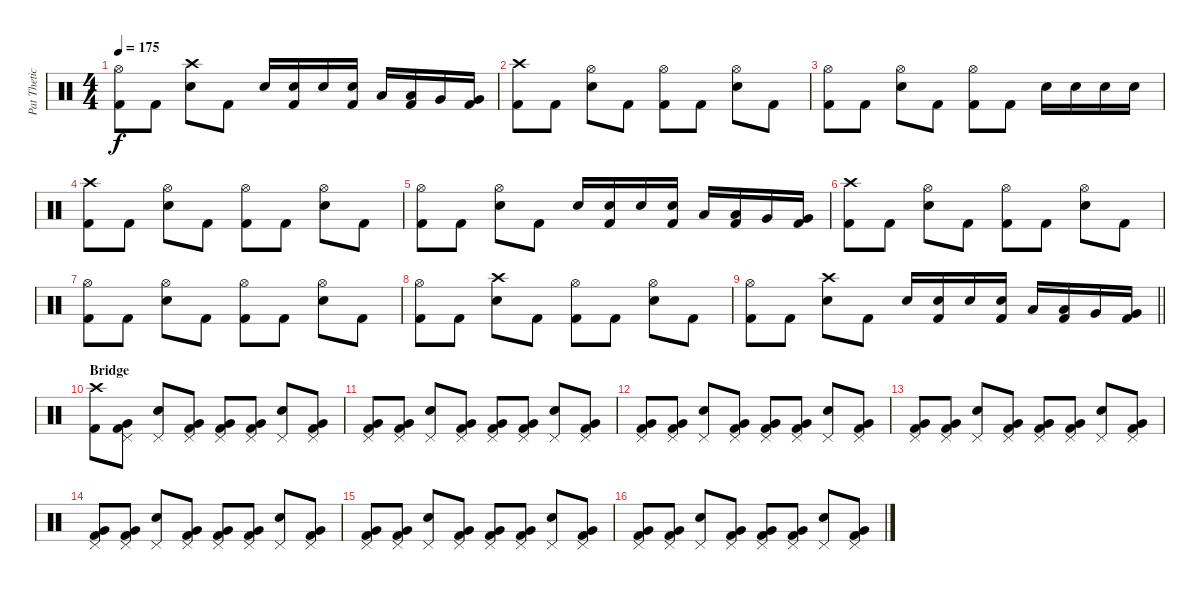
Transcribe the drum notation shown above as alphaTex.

\track ("Pat Thetic" "Pat Thetic") {instrument percussion}
\staff {score}
\articulation defaults
\ts (4 4)
\tempo 175
\clef neutral
\ks c
("Hi-Hat (open)" "Kick (hit) 2").8{dy f} "Kick (hit) 2".8 ("Crash high (hit)" "Electric Snare (hit)").8 "Kick (hit) 2".8 "Electric Snare (hit)".16 ("Electric Snare (hit)" "Kick (hit) 2").16 "Electric Snare (hit)".16 ("Electric Snare (hit)" "Kick (hit) 2").16 "Low Tom (hit)".16 ("Low Tom (hit)" "Kick (hit) 2").16 "Very Low Tom (hit)".16 ("Very Low Tom (hit)" "Kick (hit) 2").16 |
("Crash high (hit)" "Kick (hit) 2").8 "Kick (hit) 2".8 ("Hi-Hat (open)" "Electric Snare (hit)").8 "Kick (hit) 2".8 ("Hi-Hat (open)" "Kick (hit) 2").8 "Kick (hit) 2".8 ("Hi-Hat (open)" "Electric Snare (hit)").8 "Kick (hit) 2".8 |
("Hi-Hat (open)" "Kick (hit) 2").8 "Kick (hit) 2".8 ("Hi-Hat (open)" "Electric Snare (hit)").8 "Kick (hit) 2".8 ("Hi-Hat (open)" "Kick (hit) 2").8 "Kick (hit) 2".8 "Electric Snare (hit)".16 "Electric Snare (hit)".16 "Electric Snare (hit)".16 "Electric Snare (hit)".16 |
("Crash high (hit)" "Kick (hit) 2").8 "Kick (hit) 2".8 ("Hi-Hat (open)" "Electric Snare (hit)").8 "Kick (hit) 2".8 ("Hi-Hat (open)" "Kick (hit) 2").8 "Kick (hit) 2".8 ("Hi-Hat (open)" "Electric Snare (hit)").8 "Kick (hit) 2".8 |
("Hi-Hat (open)" "Kick (hit) 2").8 "Kick (hit) 2".8 ("Hi-Hat (open)" "Electric Snare (hit)").8 "Kick (hit) 2".8 "Electric Snare (hit)".16 ("Electric Snare (hit)" "Kick (hit) 2").16 "Electric Snare (hit)".16 ("Electric Snare (hit)" "Kick (hit) 2").16 "Low Tom (hit)".16 ("Low Tom (hit)" "Kick (hit) 2").16 "Very Low Tom (hit)".16 ("Very Low Tom (hit)" "Kick (hit) 2").16 |
("Crash high (hit)" "Kick (hit) 2").8 "Kick (hit) 2".8 ("Hi-Hat (open)" "Electric Snare (hit)").8 "Kick (hit) 2".8 ("Hi-Hat (open)" "Kick (hit) 2").8 "Kick (hit) 2".8 ("Hi-Hat (open)" "Electric Snare (hit)").8 "Kick (hit) 2".8 |
("Hi-Hat (open)" "Kick (hit) 2").8 "Kick (hit) 2".8 ("Hi-Hat (open)" "Electric Snare (hit)").8 "Kick (hit) 2".8 ("Hi-Hat (open)" "Kick (hit) 2").8 "Kick (hit) 2".8 ("Hi-Hat (open)" "Electric Snare (hit)").8 "Kick (hit) 2".8 |
("Hi-Hat (open)" "Kick (hit) 2").8 "Kick (hit) 2".8 ("Crash high (hit)" "Electric Snare (hit)").8 "Kick (hit) 2".8 ("Hi-Hat (open)" "Kick (hit) 2").8 "Kick (hit) 2".8 ("Hi-Hat (open)" "Electric Snare (hit)").8 "Kick (hit) 2".8 |
\barLineRight lightlight
("Hi-Hat (open)" "Kick (hit) 2").8 "Kick (hit) 2".8 ("Crash high (hit)" "Electric Snare (hit)").8 "Kick (hit) 2".8 "Electric Snare (hit)".16 ("Electric Snare (hit)" "Kick (hit) 2").16 "Electric Snare (hit)".16 ("Electric Snare (hit)" "Kick (hit) 2").16 "Low Tom (hit)".16 ("Low Tom (hit)" "Kick (hit) 2").16 "Very Low Tom (hit)".16 ("Very Low Tom (hit)" "Kick (hit) 2").16 |
\section ("" "Bridge")
("Crash high (hit)" "Kick (hit) 2").8 ("Pedal Hi-Hat (hit)" "Very Low Tom (hit)" "Kick (hit) 2").8 ("Pedal Hi-Hat (hit)" "Electric Snare (hit)").8 ("Pedal Hi-Hat (hit)" "Very Low Tom (hit)" "Kick (hit) 2").8 ("Pedal Hi-Hat (hit)" "Very Low Tom (hit)" "Kick (hit) 2").8 ("Pedal Hi-Hat (hit)" "Very Low Tom (hit)" "Kick (hit) 2").8 ("Pedal Hi-Hat (hit)" "Electric Snare (hit)").8 ("Pedal Hi-Hat (hit)" "Very Low Tom (hit)" "Kick (hit) 2").8 |
("Pedal Hi-Hat (hit)" "Very Low Tom (hit)" "Kick (hit) 2").8 ("Pedal Hi-Hat (hit)" "Very Low Tom (hit)" "Kick (hit) 2").8 ("Pedal Hi-Hat (hit)" "Electric Snare (hit)").8 ("Pedal Hi-Hat (hit)" "Very Low Tom (hit)" "Kick (hit) 2").8 ("Pedal Hi-Hat (hit)" "Very Low Tom (hit)" "Kick (hit) 2").8 ("Pedal Hi-Hat (hit)" "Very Low Tom (hit)" "Kick (hit) 2").8 ("Pedal Hi-Hat (hit)" "Electric Snare (hit)").8 ("Pedal Hi-Hat (hit)" "Very Low Tom (hit)" "Kick (hit) 2").8 |
("Pedal Hi-Hat (hit)" "Very Low Tom (hit)" "Kick (hit) 2").8 ("Pedal Hi-Hat (hit)" "Very Low Tom (hit)" "Kick (hit) 2").8 ("Pedal Hi-Hat (hit)" "Electric Snare (hit)").8 ("Pedal Hi-Hat (hit)" "Very Low Tom (hit)" "Kick (hit) 2").8 ("Pedal Hi-Hat (hit)" "Very Low Tom (hit)" "Kick (hit) 2").8 ("Pedal Hi-Hat (hit)" "Very Low Tom (hit)" "Kick (hit) 2").8 ("Pedal Hi-Hat (hit)" "Electric Snare (hit)").8 ("Pedal Hi-Hat (hit)" "Very Low Tom (hit)" "Kick (hit) 2").8 |
("Pedal Hi-Hat (hit)" "Very Low Tom (hit)" "Kick (hit) 2").8 ("Pedal Hi-Hat (hit)" "Very Low Tom (hit)" "Kick (hit) 2").8 ("Pedal Hi-Hat (hit)" "Electric Snare (hit)").8 ("Pedal Hi-Hat (hit)" "Very Low Tom (hit)" "Kick (hit) 2").8 ("Pedal Hi-Hat (hit)" "Very Low Tom (hit)" "Kick (hit) 2").8 ("Pedal Hi-Hat (hit)" "Very Low Tom (hit)" "Kick (hit) 2").8 ("Pedal Hi-Hat (hit)" "Electric Snare (hit)").8 ("Pedal Hi-Hat (hit)" "Very Low Tom (hit)" "Kick (hit) 2").8 |
("Pedal Hi-Hat (hit)" "Very Low Tom (hit)" "Kick (hit) 2").8 ("Pedal Hi-Hat (hit)" "Very Low Tom (hit)" "Kick (hit) 2").8 ("Pedal Hi-Hat (hit)" "Electric Snare (hit)").8 ("Pedal Hi-Hat (hit)" "Very Low Tom (hit)" "Kick (hit) 2").8 ("Pedal Hi-Hat (hit)" "Very Low Tom (hit)" "Kick (hit) 2").8 ("Pedal Hi-Hat (hit)" "Very Low Tom (hit)" "Kick (hit) 2").8 ("Pedal Hi-Hat (hit)" "Electric Snare (hit)").8 ("Pedal Hi-Hat (hit)" "Very Low Tom (hit)" "Kick (hit) 2").8 |
("Pedal Hi-Hat (hit)" "Very Low Tom (hit)" "Kick (hit) 2").8 ("Pedal Hi-Hat (hit)" "Very Low Tom (hit)" "Kick (hit) 2").8 ("Pedal Hi-Hat (hit)" "Electric Snare (hit)").8 ("Pedal Hi-Hat (hit)" "Very Low Tom (hit)" "Kick (hit) 2").8 ("Pedal Hi-Hat (hit)" "Very Low Tom (hit)" "Kick (hit) 2").8 ("Pedal Hi-Hat (hit)" "Very Low Tom (hit)" "Kick (hit) 2").8 ("Pedal Hi-Hat (hit)" "Electric Snare (hit)").8 ("Pedal Hi-Hat (hit)" "Very Low Tom (hit)" "Kick (hit) 2").8 |
("Pedal Hi-Hat (hit)" "Very Low Tom (hit)" "Kick (hit) 2").8 ("Pedal Hi-Hat (hit)" "Very Low Tom (hit)" "Kick (hit) 2").8 ("Pedal Hi-Hat (hit)" "Electric Snare (hit)").8 ("Pedal Hi-Hat (hit)" "Very Low Tom (hit)" "Kick (hit) 2").8 ("Pedal Hi-Hat (hit)" "Very Low Tom (hit)" "Kick (hit) 2").8 ("Pedal Hi-Hat (hit)" "Very Low Tom (hit)" "Kick (hit) 2").8 ("Pedal Hi-Hat (hit)" "Electric Snare (hit)").8 ("Pedal Hi-Hat (hit)" "Very Low Tom (hit)" "Kick (hit) 2").8
